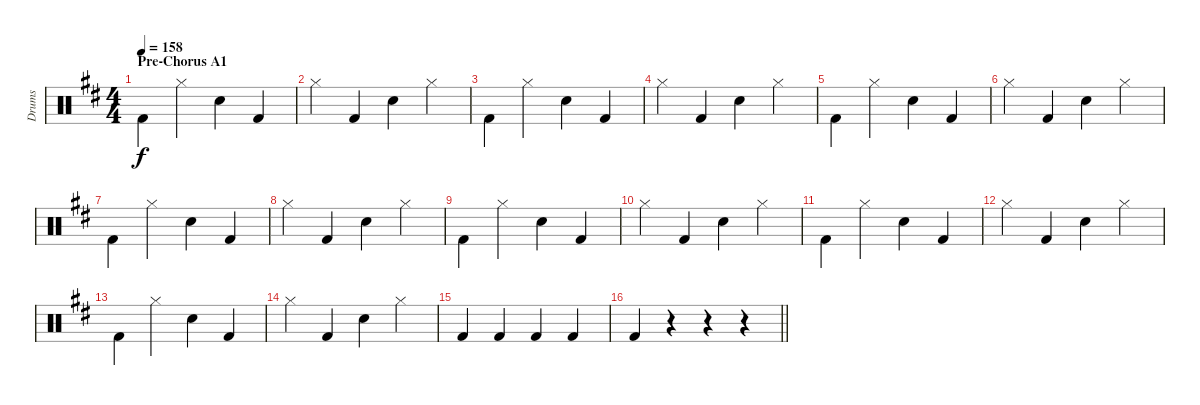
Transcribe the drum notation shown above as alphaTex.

\track ("Drums" "Drums") {instrument percussion}
\staff {score}
\articulation defaults
\ts (4 4)
\section ("" "Pre-Chorus A1")
\tempo 158
\clef neutral
\ks d "Kick (hit) 2".4{dy f beam merge} "Hi-Hat (closed)".4 "Snare (hit) 2".4 "Kick (hit) 2".4
|
"Hi-Hat (closed)".4 "Kick (hit) 2".4 "Snare (hit) 2".4 "Hi-Hat (closed)".4 |
"Kick (hit) 2".4{beam merge} "Hi-Hat (closed)".4 "Snare (hit) 2".4 "Kick (hit) 2".4 |
"Hi-Hat (closed)".4 "Kick (hit) 2".4 "Snare (hit) 2".4 "Hi-Hat (closed)".4 |
"Kick (hit) 2".4{beam merge} "Hi-Hat (closed)".4 "Snare (hit) 2".4 "Kick (hit) 2".4 |
"Hi-Hat (closed)".4 "Kick (hit) 2".4 "Snare (hit) 2".4 "Hi-Hat (closed)".4 |
"Kick (hit) 2".4{beam merge} "Hi-Hat (closed)".4 "Snare (hit) 2".4 "Kick (hit) 2".4 |
"Hi-Hat (closed)".4 "Kick (hit) 2".4 "Snare (hit) 2".4 "Hi-Hat (closed)".4 |
"Kick (hit) 2".4{beam merge} "Hi-Hat (closed)".4 "Snare (hit) 2".4 "Kick (hit) 2".4 |
"Hi-Hat (closed)".4 "Kick (hit) 2".4 "Snare (hit) 2".4 "Hi-Hat (closed)".4 |
"Kick (hit) 2".4{beam merge} "Hi-Hat (closed)".4 "Snare (hit) 2".4 "Kick (hit) 2".4 |
"Hi-Hat (closed)".4 "Kick (hit) 2".4 "Snare (hit) 2".4 "Hi-Hat (closed)".4 |
"Kick (hit) 2".4{beam merge} "Hi-Hat (closed)".4 "Snare (hit) 2".4 "Kick (hit) 2".4 |
"Hi-Hat (closed)".4 "Kick (hit) 2".4 "Snare (hit) 2".4 "Hi-Hat (closed)".4 |
"Kick (hit) 2".4{beam merge} "Kick (hit) 2".4 "Kick (hit) 2".4 "Kick (hit) 2".4 |
\barLineRight lightlight "Kick (hit) 2".4
r.4 r.4 r.4
